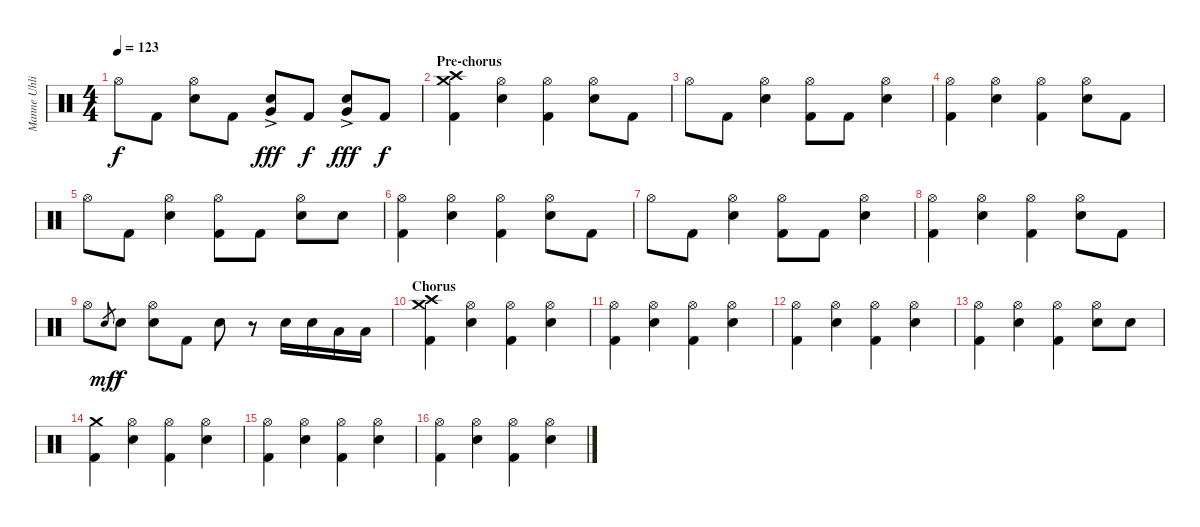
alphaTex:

\track ("Manne Uhlig" "Manne Uhli") {instrument percussion}
\staff {score}
\articulation defaults
\ts (4 4)
\tempo 123
\clef neutral
\ks c "Hi-Hat (open)".8{dy f} "Kick (hit) 2".8
("Hi-Hat (open)" "Snare (hit) 2").8 "Kick (hit) 2".8 ("Snare (hit) 2" "Very Low Tom (hit)"{ac}).8{dy fff} "Kick (hit) 2".8{dy f} ("Snare (hit) 2" "Very Low Tom (hit)"{ac}).8{dy fff} "Kick (hit) 2".8{dy f} |
\section ("" "Pre-chorus")
("Crash high (hit)" "Crash medium (hit)" "Kick (hit) 2").4 ("Hi-Hat (open)" "Snare (hit) 2").4 ("Hi-Hat (open)" "Kick (hit) 2").4 ("Hi-Hat (open)" "Snare (hit) 2").8 "Kick (hit) 2".8 |
"Hi-Hat (open)".8 "Kick (hit) 2".8 ("Hi-Hat (open)" "Snare (hit) 2").4 ("Hi-Hat (open)" "Kick (hit) 2").8 "Kick (hit) 2".8 ("Hi-Hat (open)" "Snare (hit) 2").4 |
("Hi-Hat (open)" "Kick (hit) 2").4 ("Hi-Hat (open)" "Snare (hit) 2").4 ("Hi-Hat (open)" "Kick (hit) 2").4 ("Hi-Hat (open)" "Snare (hit) 2").8 "Kick (hit) 2".8 |
"Hi-Hat (open)".8 "Kick (hit) 2".8 ("Hi-Hat (open)" "Snare (hit) 2").4 ("Hi-Hat (open)" "Kick (hit) 2").8 "Kick (hit) 2".8 ("Hi-Hat (open)" "Snare (hit) 2").8 "Snare (hit) 2".8 |
("Hi-Hat (open)" "Kick (hit) 2").4 ("Hi-Hat (open)" "Snare (hit) 2").4 ("Hi-Hat (open)" "Kick (hit) 2").4 ("Hi-Hat (open)" "Snare (hit) 2").8 "Kick (hit) 2".8 |
"Hi-Hat (open)".8 "Kick (hit) 2".8 ("Hi-Hat (open)" "Snare (hit) 2").4 ("Hi-Hat (open)" "Kick (hit) 2").8 "Kick (hit) 2".8 ("Hi-Hat (open)" "Snare (hit) 2").4 |
("Hi-Hat (open)" "Kick (hit) 2").4 ("Hi-Hat (open)" "Snare (hit) 2").4 ("Hi-Hat (open)" "Kick (hit) 2").4 ("Hi-Hat (open)" "Snare (hit) 2").8 "Kick (hit) 2".8 |
"Hi-Hat (open)".8 "Snare (hit) 2".8{gr dy mf} "Snare (hit) 2".8{dy f} ("Hi-Hat (open)" "Snare (hit) 2").8 "Kick (hit) 2".8 "Snare (hit) 2".8 r.8 "Snare (hit) 2".16 "Snare (hit) 2".16 "Low Tom (hit)".16 "Low Tom (hit)".16 |
\section ("" "Chorus")
("Crash high (hit)" "Crash medium (hit)" "Kick (hit) 2").4 ("Hi-Hat (open)" "Snare (hit) 2").4 ("Hi-Hat (open)" "Kick (hit) 2").4 ("Hi-Hat (open)" "Snare (hit) 2").4 |
("Hi-Hat (open)" "Kick (hit) 2").4 ("Hi-Hat (open)" "Snare (hit) 2").4 ("Hi-Hat (open)" "Kick (hit) 2").4 ("Hi-Hat (open)" "Snare (hit) 2").4 |
("Hi-Hat (open)" "Kick (hit) 2").4 ("Hi-Hat (open)" "Snare (hit) 2").4 ("Hi-Hat (open)" "Kick (hit) 2").4 ("Hi-Hat (open)" "Snare (hit) 2").4 |
("Hi-Hat (open)" "Kick (hit) 2").4 ("Hi-Hat (open)" "Snare (hit) 2").4 ("Hi-Hat (open)" "Kick (hit) 2").4 ("Hi-Hat (open)" "Snare (hit) 2").8 "Snare (hit) 2".8 |
("Crash medium (hit)" "Kick (hit) 2").4 ("Hi-Hat (open)" "Snare (hit) 2").4 ("Hi-Hat (open)" "Kick (hit) 2").4 ("Hi-Hat (open)" "Snare (hit) 2").4 |
("Hi-Hat (open)" "Kick (hit) 2").4 ("Hi-Hat (open)" "Snare (hit) 2").4 ("Hi-Hat (open)" "Kick (hit) 2").4 ("Hi-Hat (open)" "Snare (hit) 2").4 |
("Hi-Hat (open)" "Kick (hit) 2").4 ("Hi-Hat (open)" "Snare (hit) 2").4 ("Hi-Hat (open)" "Kick (hit) 2").4 ("Hi-Hat (open)" "Snare (hit) 2").4
